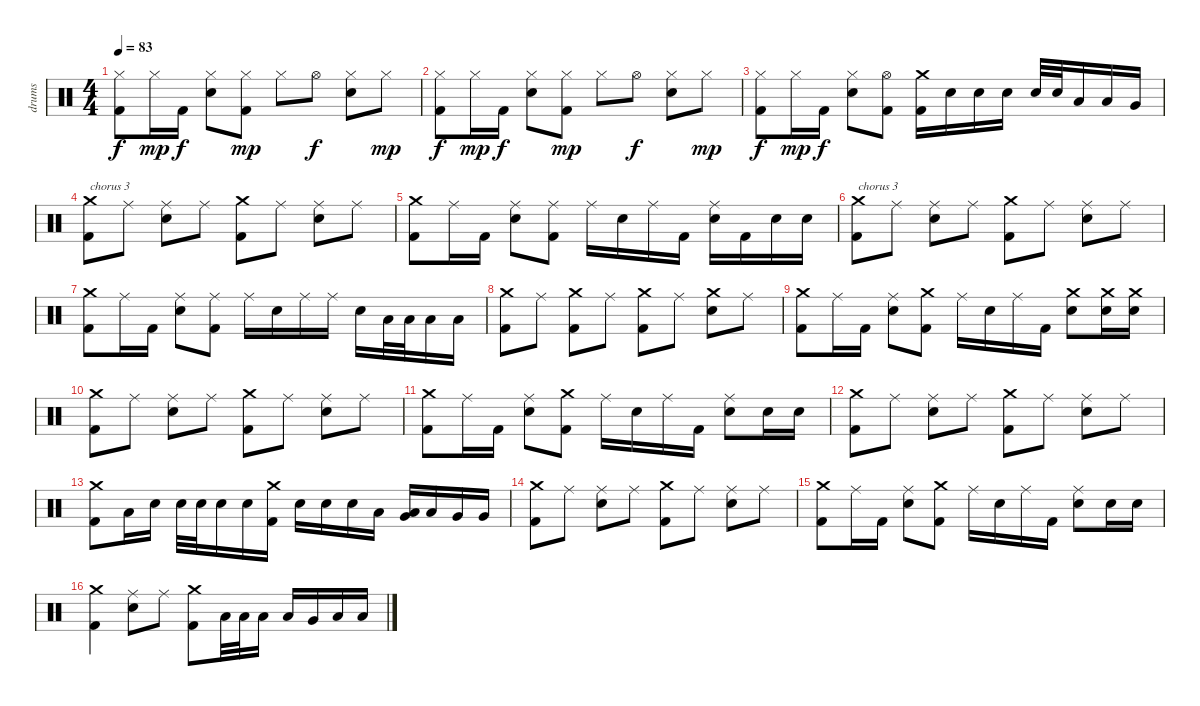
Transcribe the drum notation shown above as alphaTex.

\track ("drums" "drums") {instrument percussion}
\staff {score}
\articulation defaults
\ts (4 4)
\tempo 83
\clef neutral
\ks c
("Hi-Hat (closed)" "Kick (hit) 2").8{dy f} "Hi-Hat (closed)".16{dy mp} "Kick (hit) 2".16{dy f} ("Hi-Hat (closed)" "Electric Snare (hit)").8 ("Hi-Hat (closed)" "Kick (hit) 2").8{dy mp} "Hi-Hat (closed)".8 "Hi-Hat (open)".8{dy f} ("Hi-Hat (closed)" "Electric Snare (hit)").8 "Hi-Hat (closed)".8{dy mp} |
("Hi-Hat (closed)" "Kick (hit) 2").8{dy f} "Hi-Hat (closed)".16{dy mp} "Kick (hit) 2".16{dy f} ("Hi-Hat (closed)" "Electric Snare (hit)").8 ("Hi-Hat (closed)" "Kick (hit) 2").8{dy mp} "Hi-Hat (closed)".8 "Hi-Hat (open)".8{dy f} ("Hi-Hat (closed)" "Electric Snare (hit)").8 "Hi-Hat (closed)".8{dy mp} |
("Hi-Hat (closed)" "Kick (hit) 2").8{dy f} "Hi-Hat (closed)".16{dy mp} "Kick (hit) 2".16{dy f} ("Hi-Hat (closed)" "Electric Snare (hit)").8 ("Hi-Hat (open)" "Kick (hit) 2").8 ("Crash medium (hit)" "Kick (hit) 2").16 "Electric Snare (hit)".16 "Electric Snare (hit)".16 "Electric Snare (hit)".16 "Electric Snare (hit)".32 "Electric Snare (hit)".32 "Low Tom (hit)".16 "Low Tom (hit)".16 "Very Low Tom (hit)".16 |
("Crash medium (hit)" "Kick (hit) 2").8{txt "chorus 3"} "Ride (middle)".8 ("Ride (middle)" "Electric Snare (hit)").8 "Ride (middle)".8 ("Crash medium (hit)" "Kick (hit) 2").8 "Ride (middle)".8 ("Ride (middle)" "Electric Snare (hit)").8 "Ride (middle)".8 |
("Crash medium (hit)" "Kick (hit) 2").8 "Ride (middle)".16 "Kick (hit) 2".16 ("Ride (middle)" "Electric Snare (hit)").8 ("Ride (middle)" "Kick (hit) 2").8 "Ride (middle)".16 "Electric Snare (hit)".16 "Ride (middle)".16 "Kick (hit) 2".16 ("Ride (middle)" "Electric Snare (hit)").16 "Kick (hit) 2".16 "Electric Snare (hit)".16 "Electric Snare (hit)".16 |
("Crash medium (hit)" "Kick (hit) 2").8{txt "chorus 3"} "Ride (middle)".8 ("Ride (middle)" "Electric Snare (hit)").8 "Ride (middle)".8 ("Crash medium (hit)" "Kick (hit) 2").8 "Ride (middle)".8 ("Ride (middle)" "Electric Snare (hit)").8 "Ride (middle)".8 |
("Crash medium (hit)" "Kick (hit) 2").8 "Ride (middle)".16 "Kick (hit) 2".16 ("Ride (middle)" "Electric Snare (hit)").8 ("Ride (middle)" "Kick (hit) 2").8 "Ride (middle)".16 "Electric Snare (hit)".16 "Ride (middle)".16 "Ride (middle)".16 "Electric Snare (hit)".16 "Low Tom (hit)".32 "Low Tom (hit)".32 "Low Tom (hit)".16 "Low Tom (hit)".16 |
("Crash medium (hit)" "Kick (hit) 2").8 "Ride (middle)".8 ("Crash medium (hit)" "Kick (hit) 2").8 "Ride (middle)".8 ("Crash medium (hit)" "Kick (hit) 2").8 "Ride (middle)".8 ("Crash medium (hit)" "Electric Snare (hit)").8 "Ride (middle)".8 |
("Crash medium (hit)" "Kick (hit) 2").8 "Ride (middle)".16 "Kick (hit) 2".16 ("Ride (middle)" "Electric Snare (hit)").8 ("Crash medium (hit)" "Kick (hit) 2").8 "Ride (middle)".16 "Electric Snare (hit)".16 "Ride (middle)".16 "Kick (hit) 2".16 ("Crash medium (hit)" "Electric Snare (hit)").8 ("Crash medium (hit)" "Electric Snare (hit)").16 ("Crash medium (hit)" "Electric Snare (hit)").16 |
("Crash medium (hit)" "Kick (hit) 2").8 "Ride (middle)".8 ("Ride (middle)" "Electric Snare (hit)").8 "Ride (middle)".8 ("Crash medium (hit)" "Kick (hit) 2").8 "Ride (middle)".8 ("Ride (middle)" "Electric Snare (hit)").8 "Ride (middle)".8 |
("Crash medium (hit)" "Kick (hit) 2").8 "Ride (middle)".16 "Kick (hit) 2".16 ("Ride (middle)" "Electric Snare (hit)").8 ("Crash medium (hit)" "Kick (hit) 2").8 "Ride (middle)".16 "Electric Snare (hit)".16 "Ride (middle)".16 "Kick (hit) 2".16 ("Ride (middle)" "Electric Snare (hit)").8 "Electric Snare (hit)".16 "Electric Snare (hit)".16 |
("Crash medium (hit)" "Kick (hit) 2").8 "Ride (middle)".8 ("Ride (middle)" "Electric Snare (hit)").8 "Ride (middle)".8 ("Crash medium (hit)" "Kick (hit) 2").8 "Ride (middle)".8 ("Ride (middle)" "Electric Snare (hit)").8 "Ride (middle)".8 |
("Crash medium (hit)" "Kick (hit) 2").8 "Low Tom (hit)".16 "Electric Snare (hit)".16 "Electric Snare (hit)".32 "Electric Snare (hit)".32 "Electric Snare (hit)".16 "Electric Snare (hit)".16 ("Crash medium (hit)" "Kick (hit) 2").16 "Electric Snare (hit)".16 "Electric Snare (hit)".16 "Electric Snare (hit)".16 "Low Tom (hit)".16 ("Low Tom (hit)" "Very Low Tom (hit)").16 "Low Tom (hit)".16 "Very Low Tom (hit)".16 "Very Low Tom (hit)".16 |
("Crash medium (hit)" "Kick (hit) 2").8 "Ride (middle)".8 ("Ride (middle)" "Electric Snare (hit)").8 "Ride (middle)".8 ("Crash medium (hit)" "Kick (hit) 2").8 "Ride (middle)".8 ("Ride (middle)" "Electric Snare (hit)").8 "Ride (middle)".8 |
("Crash medium (hit)" "Kick (hit) 2").8 "Ride (middle)".16 "Kick (hit) 2".16 ("Ride (middle)" "Electric Snare (hit)").8 ("Crash medium (hit)" "Kick (hit) 2").8 "Ride (middle)".16 "Electric Snare (hit)".16 "Ride (middle)".16 "Kick (hit) 2".16 ("Ride (middle)" "Electric Snare (hit)").8 "Electric Snare (hit)".16 "Electric Snare (hit)".16 |
("Crash medium (hit)" "Kick (hit) 2").4 ("Ride (middle)" "Electric Snare (hit)").8 "Ride (middle)".8 ("Crash medium (hit)" "Kick (hit) 2").8 "Low Tom (hit)".32 "Low Tom (hit)".32 "Low Tom (hit)".16 "Low Tom (hit)".16 "Very Low Tom (hit)".16 "Low Floor Tom (hit)".16 "Low Floor Tom (hit)".16
